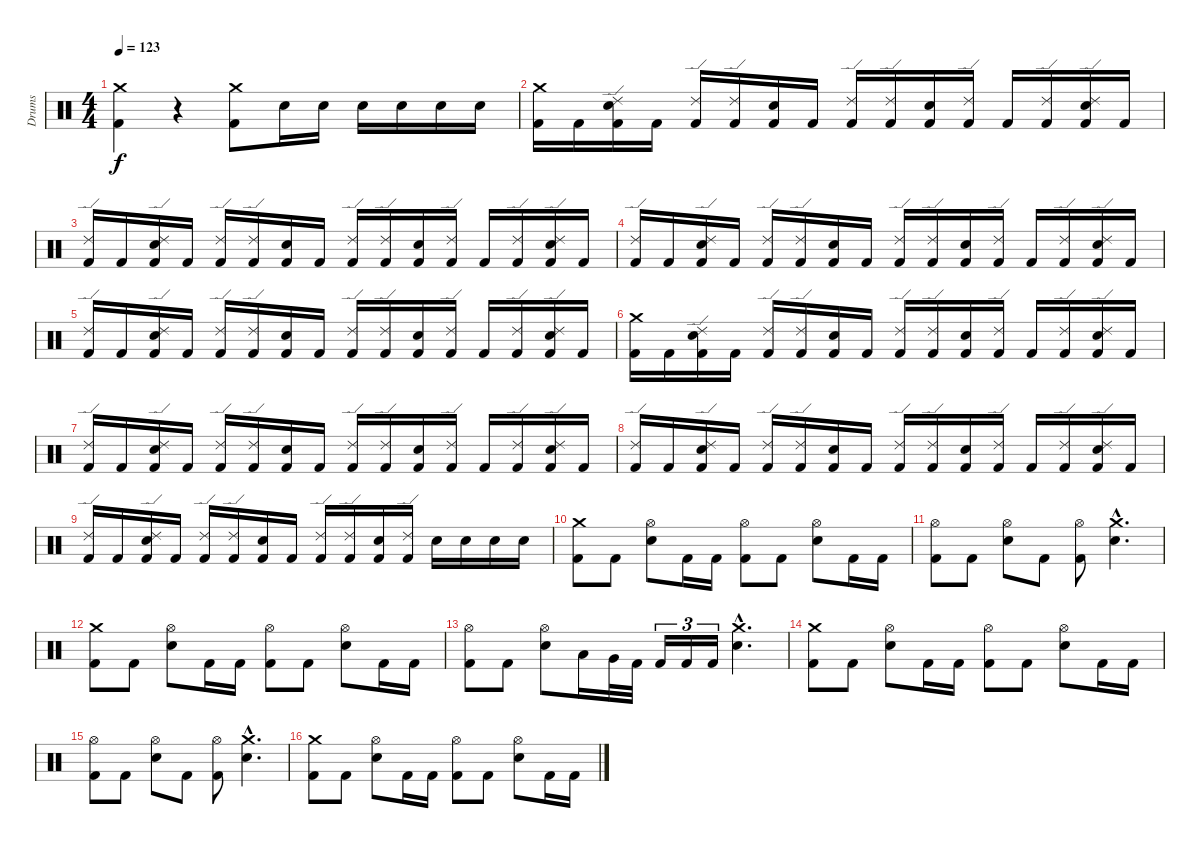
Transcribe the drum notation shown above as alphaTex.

\track ("Drums" "Drums") {instrument percussion}
\staff {score}
\articulation defaults
\ts (4 4)
\tempo 123
\clef neutral
\ks c
("Crash medium (hit)" "Kick (hit) 2").4{dy f} r.4 ("Crash medium (hit)" "Kick (hit) 2").8 "Electric Snare (hit)".16 "Electric Snare (hit)".16 "Electric Snare (hit)".16 "Electric Snare (hit)".16 "Electric Snare (hit)".16 "Electric Snare (hit)".16 |
("Crash medium (hit)" "Kick (hit) 2").16 "Kick (hit) 2".16 ("Electric Snare (hit)" "Ride (edge) 2" "Kick (hit) 2").16 "Kick (hit) 2".16 ("Ride (edge) 2" "Kick (hit) 2").16 ("Ride (edge) 2" "Kick (hit) 2").16 ("Electric Snare (hit)" "Kick (hit) 2").16 "Kick (hit) 2".16 ("Ride (edge) 2" "Kick (hit) 2").16 ("Ride (edge) 2" "Kick (hit) 2").16 ("Electric Snare (hit)" "Kick (hit) 2").16 ("Ride (edge) 2" "Kick (hit) 2").16 "Kick (hit) 2".16 ("Ride (edge) 2" "Kick (hit) 2").16 ("Electric Snare (hit)" "Ride (edge) 2" "Kick (hit) 2").16 "Kick (hit) 2".16 |
("Ride (edge) 2" "Kick (hit) 2").16 "Kick (hit) 2".16 ("Electric Snare (hit)" "Ride (edge) 2" "Kick (hit) 2").16 "Kick (hit) 2".16 ("Ride (edge) 2" "Kick (hit) 2").16 ("Ride (edge) 2" "Kick (hit) 2").16 ("Electric Snare (hit)" "Kick (hit) 2").16 "Kick (hit) 2".16 ("Ride (edge) 2" "Kick (hit) 2").16 ("Ride (edge) 2" "Kick (hit) 2").16 ("Electric Snare (hit)" "Kick (hit) 2").16 ("Ride (edge) 2" "Kick (hit) 2").16 "Kick (hit) 2".16 ("Ride (edge) 2" "Kick (hit) 2").16 ("Electric Snare (hit)" "Ride (edge) 2" "Kick (hit) 2").16 "Kick (hit) 2".16 |
("Ride (edge) 2" "Kick (hit) 2").16 "Kick (hit) 2".16 ("Electric Snare (hit)" "Ride (edge) 2" "Kick (hit) 2").16 "Kick (hit) 2".16 ("Ride (edge) 2" "Kick (hit) 2").16 ("Ride (edge) 2" "Kick (hit) 2").16 ("Electric Snare (hit)" "Kick (hit) 2").16 "Kick (hit) 2".16 ("Ride (edge) 2" "Kick (hit) 2").16 ("Ride (edge) 2" "Kick (hit) 2").16 ("Electric Snare (hit)" "Kick (hit) 2").16 ("Ride (edge) 2" "Kick (hit) 2").16 "Kick (hit) 2".16 ("Ride (edge) 2" "Kick (hit) 2").16 ("Electric Snare (hit)" "Ride (edge) 2" "Kick (hit) 2").16 "Kick (hit) 2".16 |
("Ride (edge) 2" "Kick (hit) 2").16 "Kick (hit) 2".16 ("Electric Snare (hit)" "Ride (edge) 2" "Kick (hit) 2").16 "Kick (hit) 2".16 ("Ride (edge) 2" "Kick (hit) 2").16 ("Ride (edge) 2" "Kick (hit) 2").16 ("Electric Snare (hit)" "Kick (hit) 2").16 "Kick (hit) 2".16 ("Ride (edge) 2" "Kick (hit) 2").16 ("Ride (edge) 2" "Kick (hit) 2").16 ("Electric Snare (hit)" "Kick (hit) 2").16 ("Ride (edge) 2" "Kick (hit) 2").16 "Kick (hit) 2".16 ("Ride (edge) 2" "Kick (hit) 2").16 ("Electric Snare (hit)" "Ride (edge) 2" "Kick (hit) 2").16 "Kick (hit) 2".16 |
("Crash medium (hit)" "Kick (hit) 2").16 "Kick (hit) 2".16 ("Electric Snare (hit)" "Ride (edge) 2" "Kick (hit) 2").16 "Kick (hit) 2".16 ("Ride (edge) 2" "Kick (hit) 2").16 ("Ride (edge) 2" "Kick (hit) 2").16 ("Electric Snare (hit)" "Kick (hit) 2").16 "Kick (hit) 2".16 ("Ride (edge) 2" "Kick (hit) 2").16 ("Ride (edge) 2" "Kick (hit) 2").16 ("Electric Snare (hit)" "Kick (hit) 2").16 ("Ride (edge) 2" "Kick (hit) 2").16 "Kick (hit) 2".16 ("Ride (edge) 2" "Kick (hit) 2").16 ("Electric Snare (hit)" "Ride (edge) 2" "Kick (hit) 2").16 "Kick (hit) 2".16 |
("Ride (edge) 2" "Kick (hit) 2").16 "Kick (hit) 2".16 ("Electric Snare (hit)" "Ride (edge) 2" "Kick (hit) 2").16 "Kick (hit) 2".16 ("Ride (edge) 2" "Kick (hit) 2").16 ("Ride (edge) 2" "Kick (hit) 2").16 ("Electric Snare (hit)" "Kick (hit) 2").16 "Kick (hit) 2".16 ("Ride (edge) 2" "Kick (hit) 2").16 ("Ride (edge) 2" "Kick (hit) 2").16 ("Electric Snare (hit)" "Kick (hit) 2").16 ("Ride (edge) 2" "Kick (hit) 2").16 "Kick (hit) 2".16 ("Ride (edge) 2" "Kick (hit) 2").16 ("Electric Snare (hit)" "Ride (edge) 2" "Kick (hit) 2").16 "Kick (hit) 2".16 |
("Ride (edge) 2" "Kick (hit) 2").16 "Kick (hit) 2".16 ("Electric Snare (hit)" "Ride (edge) 2" "Kick (hit) 2").16 "Kick (hit) 2".16 ("Ride (edge) 2" "Kick (hit) 2").16 ("Ride (edge) 2" "Kick (hit) 2").16 ("Electric Snare (hit)" "Kick (hit) 2").16 "Kick (hit) 2".16 ("Ride (edge) 2" "Kick (hit) 2").16 ("Ride (edge) 2" "Kick (hit) 2").16 ("Electric Snare (hit)" "Kick (hit) 2").16 ("Ride (edge) 2" "Kick (hit) 2").16 "Kick (hit) 2".16 ("Ride (edge) 2" "Kick (hit) 2").16 ("Electric Snare (hit)" "Ride (edge) 2" "Kick (hit) 2").16 "Kick (hit) 2".16 |
("Ride (edge) 2" "Kick (hit) 2").16 "Kick (hit) 2".16 ("Electric Snare (hit)" "Ride (edge) 2" "Kick (hit) 2").16 "Kick (hit) 2".16 ("Ride (edge) 2" "Kick (hit) 2").16 ("Ride (edge) 2" "Kick (hit) 2").16 ("Electric Snare (hit)" "Kick (hit) 2").16 "Kick (hit) 2".16 ("Ride (edge) 2" "Kick (hit) 2").16 ("Ride (edge) 2" "Kick (hit) 2").16 ("Electric Snare (hit)" "Kick (hit) 2").16 ("Ride (edge) 2" "Kick (hit) 2").16 "Electric Snare (hit)".16 "Electric Snare (hit)".16 "Electric Snare (hit)".16 "Electric Snare (hit)".16 |
("Kick (hit) 2" "Crash medium (hit)").8 "Kick (hit) 2".8 ("Electric Snare (hit)" "Hi-Hat (open)").8 "Kick (hit) 2".16 "Kick (hit) 2".16 ("Kick (hit) 2" "Hi-Hat (open)").8 "Kick (hit) 2".8 ("Electric Snare (hit)" "Hi-Hat (open)").8 "Kick (hit) 2".16 "Kick (hit) 2".16 |
("Kick (hit) 2" "Hi-Hat (open)").8 "Kick (hit) 2".8 ("Electric Snare (hit)" "Hi-Hat (open)").8 "Kick (hit) 2".8 ("Hi-Hat (open)" "Kick (hit) 2").8 ("Crash medium (hit)"{hac} "Electric Snare (hit)"{hac}).4{d} |
("Kick (hit) 2" "Crash medium (hit)").8 "Kick (hit) 2".8 ("Electric Snare (hit)" "Hi-Hat (open)").8 "Kick (hit) 2".16 "Kick (hit) 2".16 ("Kick (hit) 2" "Hi-Hat (open)").8 "Kick (hit) 2".8 ("Electric Snare (hit)" "Hi-Hat (open)").8 "Kick (hit) 2".16 "Kick (hit) 2".16 |
("Kick (hit) 2" "Hi-Hat (open)").8 "Kick (hit) 2".8 ("Electric Snare (hit)" "Hi-Hat (open)").8 "Low Tom (hit)".16 "Very Low Tom (hit)".32 "Kick (hit) 2".32 "Kick (hit) 2".16{tu (3 2)} "Kick (hit) 2".16{tu (3 2)} "Kick (hit) 2".16{tu (3 2)} ("Crash medium (hit)"{hac} "Electric Snare (hit)"{hac}).4{d} |
("Kick (hit) 2" "Crash medium (hit)").8 "Kick (hit) 2".8 ("Electric Snare (hit)" "Hi-Hat (open)").8 "Kick (hit) 2".16 "Kick (hit) 2".16 ("Kick (hit) 2" "Hi-Hat (open)").8 "Kick (hit) 2".8 ("Electric Snare (hit)" "Hi-Hat (open)").8 "Kick (hit) 2".16 "Kick (hit) 2".16 |
("Kick (hit) 2" "Hi-Hat (open)").8 "Kick (hit) 2".8 ("Electric Snare (hit)" "Hi-Hat (open)").8 "Kick (hit) 2".8 ("Hi-Hat (open)" "Kick (hit) 2").8 ("Crash medium (hit)"{hac} "Electric Snare (hit)"{hac}).4{d} |
("Kick (hit) 2" "Crash medium (hit)").8 "Kick (hit) 2".8 ("Electric Snare (hit)" "Hi-Hat (open)").8 "Kick (hit) 2".16 "Kick (hit) 2".16 ("Kick (hit) 2" "Hi-Hat (open)").8 "Kick (hit) 2".8 ("Electric Snare (hit)" "Hi-Hat (open)").8 "Kick (hit) 2".16 "Kick (hit) 2".16
